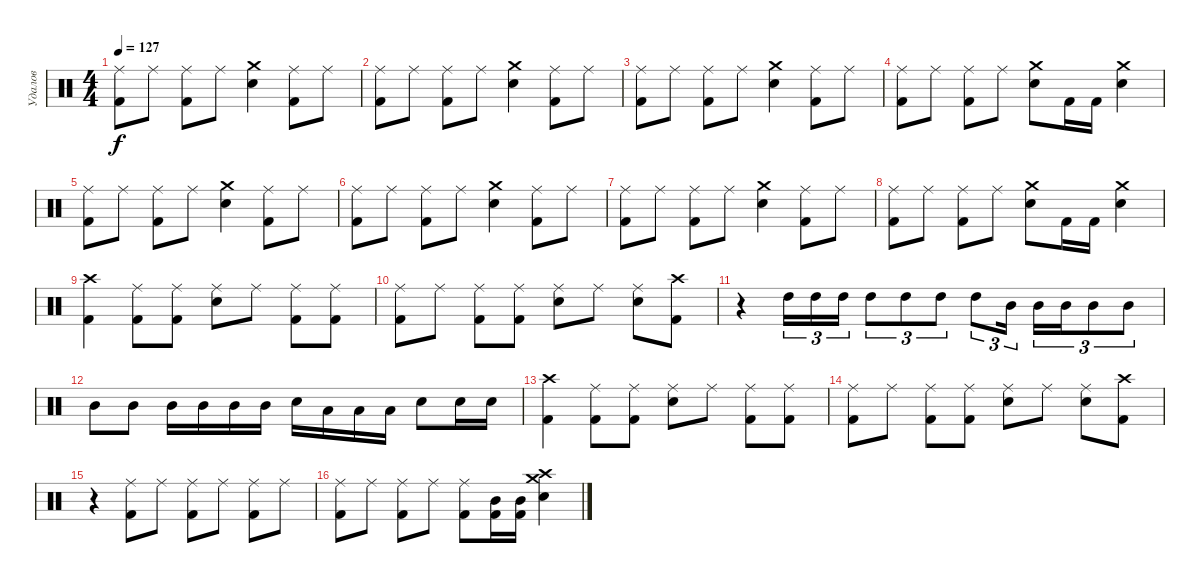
\track ("Удалов" "Удалов") {instrument percussion}
\staff {score}
\articulation defaults
\ts (4 4)
\tempo 127
\clef neutral
\ks c
("Ride (middle)" "Kick (hit) 2").8{dy f} "Ride (middle)".8 ("Ride (middle)" "Kick (hit) 2").8 "Ride (middle)".8 ("Crash medium (hit)" "Snare (hit) 2").4 ("Ride (middle)" "Kick (hit) 2").8 "Ride (middle)".8 |
("Ride (middle)" "Kick (hit) 2").8 "Ride (middle)".8 ("Ride (middle)" "Kick (hit) 2").8 "Ride (middle)".8 ("Crash medium (hit)" "Snare (hit) 2").4 ("Ride (middle)" "Kick (hit) 2").8 "Ride (middle)".8 |
("Ride (middle)" "Kick (hit) 2").8 "Ride (middle)".8 ("Ride (middle)" "Kick (hit) 2").8 "Ride (middle)".8 ("Crash medium (hit)" "Snare (hit) 2").4 ("Ride (middle)" "Kick (hit) 2").8 "Ride (middle)".8 |
("Ride (middle)" "Kick (hit) 2").8 "Ride (middle)".8 ("Ride (middle)" "Kick (hit) 2").8 "Ride (middle)".8 ("Crash medium (hit)" "Snare (hit) 2").8 "Kick (hit) 2".16 "Kick (hit) 2".16 ("Crash medium (hit)" "Snare (hit) 2").4 |
("Ride (middle)" "Kick (hit) 2").8 "Ride (middle)".8 ("Ride (middle)" "Kick (hit) 2").8 "Ride (middle)".8 ("Crash medium (hit)" "Snare (hit) 2").4 ("Ride (middle)" "Kick (hit) 2").8 "Ride (middle)".8 |
("Ride (middle)" "Kick (hit) 2").8 "Ride (middle)".8 ("Ride (middle)" "Kick (hit) 2").8 "Ride (middle)".8 ("Crash medium (hit)" "Snare (hit) 2").4 ("Ride (middle)" "Kick (hit) 2").8 "Ride (middle)".8 |
("Ride (middle)" "Kick (hit) 2").8 "Ride (middle)".8 ("Ride (middle)" "Kick (hit) 2").8 "Ride (middle)".8 ("Crash medium (hit)" "Snare (hit) 2").4 ("Ride (middle)" "Kick (hit) 2").8 "Ride (middle)".8 |
("Ride (middle)" "Kick (hit) 2").8 "Ride (middle)".8 ("Ride (middle)" "Kick (hit) 2").8 "Ride (middle)".8 ("Crash medium (hit)" "Snare (hit) 2").8 "Kick (hit) 2".16 "Kick (hit) 2".16 ("Crash medium (hit)" "Snare (hit) 2").4 |
("Crash high (hit)" "Kick (hit) 2").4 ("Ride (middle)" "Kick (hit) 2").8 ("Ride (middle)" "Kick (hit) 2").8 ("Ride (middle)" "Snare (hit) 2").8 "Ride (middle)".8 ("Ride (middle)" "Kick (hit) 2").8 ("Ride (middle)" "Kick (hit) 2").8 |
("Ride (middle)" "Kick (hit) 2").8 "Ride (middle)".8 ("Ride (middle)" "Kick (hit) 2").8 ("Ride (middle)" "Kick (hit) 2").8 ("Ride (middle)" "Snare (hit) 2").8 "Ride (middle)".8 ("Ride (middle)" "Snare (hit) 2").8 ("Crash high (hit)" "Kick (hit) 2").8 |
r.4 "High Tom (hit)".16{tu (3 2)} "High Tom (hit)".16{tu (3 2)} "High Tom (hit)".16{tu (3 2)} "High Tom (hit)".8{tu (3 2)} "High Tom (hit)".8{tu (3 2)} "High Tom (hit)".8{tu (3 2)} "High Tom (hit)".8{tu (3 2)} "Mid Tom (hit)".16{tu (3 2)} "Mid Tom (hit)".16{tu (3 2)} "Mid Tom (hit)".16{tu (3 2)} "Mid Tom (hit)".8{tu (3 2)} "Mid Tom (hit)".8{tu (3 2)} |
"Mid Tom (hit)".8 "Mid Tom (hit)".8 "Mid Tom (hit)".16 "Mid Tom (hit)".16 "Mid Tom (hit)".16 "Mid Tom (hit)".16 "Snare (hit) 2".16 "Low Tom (hit)".16 "Low Tom (hit)".16 "Low Tom (hit)".16 "Snare (hit) 2".8 "Snare (hit) 2".16 "Snare (hit) 2".16 |
("Crash high (hit)" "Kick (hit) 2").4 ("Ride (middle)" "Kick (hit) 2").8 ("Ride (middle)" "Kick (hit) 2").8 ("Ride (middle)" "Snare (hit) 2").8 "Ride (middle)".8 ("Ride (middle)" "Kick (hit) 2").8 ("Ride (middle)" "Kick (hit) 2").8 |
("Ride (middle)" "Kick (hit) 2").8 "Ride (middle)".8 ("Ride (middle)" "Kick (hit) 2").8 ("Ride (middle)" "Kick (hit) 2").8 ("Ride (middle)" "Snare (hit) 2").8 "Ride (middle)".8 ("Ride (middle)" "Snare (hit) 2").8 ("Crash high (hit)" "Kick (hit) 2").8 |
r.4 ("Ride (middle)" "Kick (hit) 2").8 "Ride (middle)".8 ("Ride (middle)" "Kick (hit) 2").8 "Ride (middle)".8 ("Ride (middle)" "Kick (hit) 2").8 "Ride (middle)".8 |
("Ride (middle)" "Kick (hit) 2").8 "Ride (middle)".8 ("Ride (middle)" "Kick (hit) 2").8 "Ride (middle)".8 ("Ride (middle)" "Kick (hit) 2").8 ("Mid Tom (hit)" "Kick (hit) 2").16 ("Mid Tom (hit)" "Kick (hit) 2").16 ("Crash medium (hit)" "Crash high (hit)" "Snare (hit) 2").4
